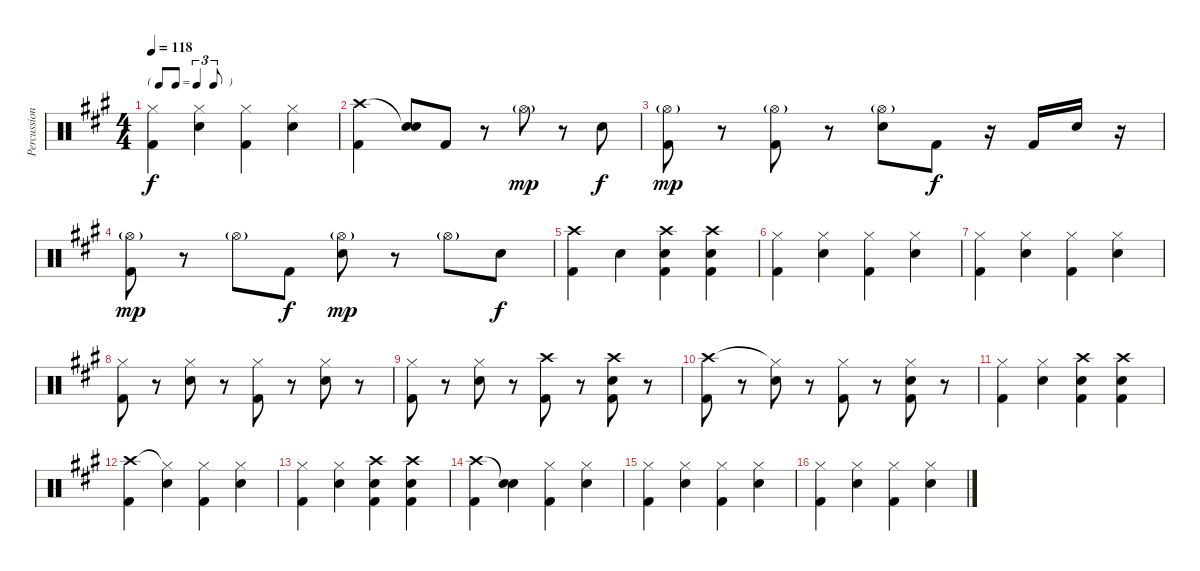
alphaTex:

\track ("Percussion" "Percussion") {instrument percussion}
\staff {score}
\articulation defaults
\ts (4 4)
\tf triplet8th
\tempo 118
\clef neutral
\ks a
("Hi-Hat (closed)" "Kick (hit) 2").4{dy f} ("Hi-Hat (closed)" "Snare (hit) 2").4 ("Hi-Hat (closed)" "Kick (hit) 2").4 ("Hi-Hat (closed)" "Snare (hit) 2").4 |
("Crash high (hit)" "Kick (hit) 2").4 ("Snare (hit)"{t} "Snare (hit) 2").8 "Kick (hit) 2".8 r.8 "Hi-Hat (open)"{g}.8{dy mp} r.8 "Snare (hit) 2".8{dy f} |
("Hi-Hat (open)"{g} "Kick (hit) 2").8{dy mp} r.8 ("Hi-Hat (open)"{g} "Kick (hit) 2").8 r.8 ("Hi-Hat (open)"{g} "Snare (hit) 2").8 "Kick (hit) 2".8{dy f} r.16 "Kick (hit) 2".16 "Snare (hit) 2".16 r.16 |
("Hi-Hat (open)"{g} "Kick (hit) 2").8{dy mp} r.8 "Hi-Hat (open)"{g}.8 "Kick (hit) 2".8{dy f} ("Hi-Hat (open)"{g} "Snare (hit) 2").8{dy mp} r.8 "Hi-Hat (open)"{g}.8 "Snare (hit) 2".8{dy f} |
("Crash high (hit)" "Kick (hit) 2").4 "Snare (hit) 2".4 ("Crash high (hit)" "Snare (hit) 2" "Kick (hit) 2").4 ("Crash high (hit)" "Snare (hit) 2" "Kick (hit) 2").4 |
("Hi-Hat (closed)" "Kick (hit) 2").4 ("Hi-Hat (closed)" "Snare (hit) 2").4 ("Hi-Hat (closed)" "Kick (hit) 2").4 ("Hi-Hat (closed)" "Snare (hit) 2").4 |
("Hi-Hat (closed)" "Kick (hit) 2").4 ("Hi-Hat (closed)" "Snare (hit) 2").4 ("Hi-Hat (closed)" "Kick (hit) 2").4 ("Hi-Hat (closed)" "Snare (hit) 2").4 |
("Hi-Hat (closed)" "Kick (hit) 2").8 r.8 ("Hi-Hat (closed)" "Snare (hit) 2").8 r.8 ("Hi-Hat (closed)" "Kick (hit) 2").8 r.8 ("Hi-Hat (closed)" "Snare (hit) 2").8 r.8 |
("Hi-Hat (closed)" "Kick (hit) 2").8 r.8 ("Hi-Hat (closed)" "Snare (hit) 2").8 r.8 ("Crash high (hit)" "Kick (hit) 2").8 r.8 ("Crash high (hit)" "Snare (hit) 2" "Kick (hit) 2").8 r.8 |
("Crash high (hit)" "Kick (hit) 2").8 r.8 ("Hi-Hat (closed)"{t} "Snare (hit) 2").8 r.8 ("Hi-Hat (closed)" "Kick (hit) 2").8 r.8 ("Hi-Hat (closed)" "Snare (hit) 2" "Kick (hit) 2").8 r.8 |
("Hi-Hat (closed)" "Kick (hit) 2").4 ("Hi-Hat (closed)" "Snare (hit) 2").4 ("Crash high (hit)" "Snare (hit) 2" "Kick (hit) 2").4 ("Crash high (hit)" "Snare (hit) 2" "Kick (hit) 2").4 |
("Crash high (hit)" "Kick (hit) 2").4 ("Hi-Hat (closed)"{t} "Snare (hit) 2").4 ("Hi-Hat (closed)" "Kick (hit) 2").4 ("Hi-Hat (closed)" "Snare (hit) 2").4 |
("Hi-Hat (closed)" "Kick (hit) 2").4 ("Hi-Hat (closed)" "Snare (hit) 2").4 ("Crash high (hit)" "Snare (hit) 2" "Kick (hit) 2").4 ("Crash high (hit)" "Snare (hit) 2" "Kick (hit) 2").4 |
("Crash high (hit)" "Kick (hit) 2").4 ("Snare (hit)"{t} "Snare (hit) 2").4 ("Hi-Hat (closed)" "Kick (hit) 2").4 ("Hi-Hat (closed)" "Snare (hit) 2").4 |
("Hi-Hat (closed)" "Kick (hit) 2").4 ("Hi-Hat (closed)" "Snare (hit) 2").4 ("Hi-Hat (closed)" "Kick (hit) 2").4 ("Hi-Hat (closed)" "Snare (hit) 2").4 |
("Hi-Hat (closed)" "Kick (hit) 2").4 ("Hi-Hat (closed)" "Snare (hit) 2").4 ("Hi-Hat (closed)" "Kick (hit) 2").4 ("Hi-Hat (closed)" "Snare (hit) 2").4
